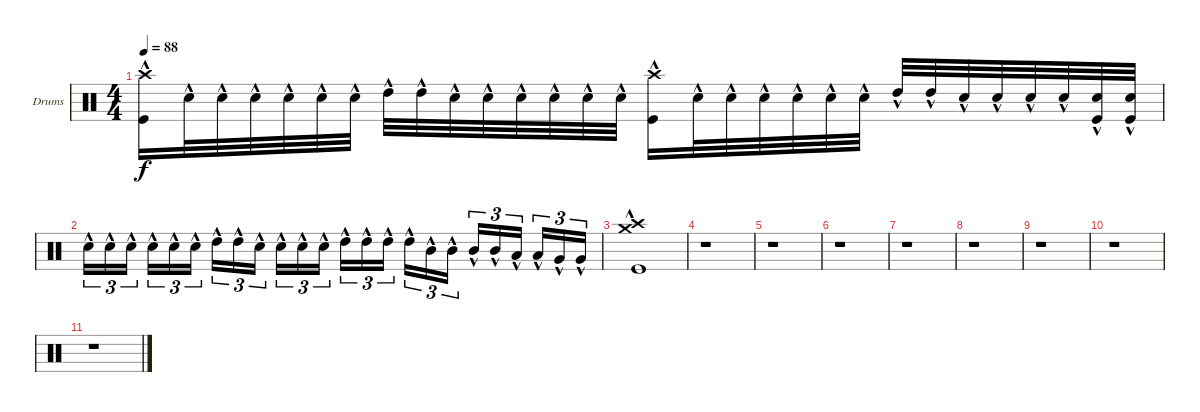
\bracketExtendMode groupsimilarinstruments
\firstSystemTrackNameOrientation horizontal
\otherSystemsTrackNameOrientation horizontal
\track ("Drumkit" "Drums") {instrument percussion}
\staff {score}
\articulation defaults
\ts (4 4)
\tempo 88
\clef neutral
\ks c
("Kick (hit)"{hac} "Crash high (hit)"{hac}).16{dy f} "Snare (hit) 2"{hac}.32 "Snare (hit) 2"{hac}.32 "Snare (hit) 2"{hac}.32 "Snare (hit) 2"{hac}.32 "Snare (hit) 2"{hac}.32 "Snare (hit) 2"{hac}.32 "High Tom (hit)"{hac}.32 "High Tom (hit)"{hac}.32 "Snare (hit) 2"{hac}.32 "Snare (hit) 2"{hac}.32 "Snare (hit) 2"{hac}.32 "Snare (hit) 2"{hac}.32 "Snare (hit) 2"{hac}.32 "Snare (hit) 2"{hac}.32 ("Kick (hit)"{hac} "Crash high (hit)"{hac}).16 "Snare (hit) 2"{hac}.32 "Snare (hit) 2"{hac}.32 "Snare (hit) 2"{hac}.32 "Snare (hit) 2"{hac}.32 "Snare (hit) 2"{hac}.32 "Snare (hit) 2"{hac}.32 "High Tom (hit)"{hac}.32 "High Tom (hit)"{hac}.32 "Snare (hit) 2"{hac}.32 "Snare (hit) 2"{hac}.32 "Snare (hit) 2"{hac}.32 "Snare (hit) 2"{hac}.32 ("Kick (hit)"{hac} "Snare (hit) 2"{hac}).32 ("Kick (hit)"{hac} "Snare (hit) 2"{hac}).32 |
"Snare (hit) 2"{hac}.16{tu (3 2)} "Snare (hit) 2"{hac}.16{tu (3 2)} "Snare (hit) 2"{hac}.16{tu (3 2)} "Snare (hit) 2"{hac}.16{tu (3 2)} "Snare (hit) 2"{hac}.16{tu (3 2)} "Snare (hit) 2"{hac}.16{tu (3 2)} "High Tom (hit)"{hac}.16{tu (3 2)} "High Tom (hit)"{hac}.16{tu (3 2)} "Snare (hit) 2"{hac}.16{tu (3 2)} "Snare (hit) 2"{hac}.16{tu (3 2)} "Snare (hit) 2"{hac}.16{tu (3 2)} "Snare (hit) 2"{hac}.16{tu (3 2)} "High Tom (hit)"{hac}.16{tu (3 2)} "High Tom (hit)"{hac}.16{tu (3 2)} "High Tom (hit)"{hac}.16{tu (3 2)} "High Tom (hit)"{hac}.16{tu (3 2)} "Mid Tom (hit)"{hac}.16{tu (3 2)} "Mid Tom (hit)"{hac}.16{tu (3 2)} "Mid Tom (hit)"{hac}.16{tu (3 2)} "Mid Tom (hit)"{hac}.16{tu (3 2)} "Low Tom (hit)"{hac}.16{tu (3 2)} "Low Tom (hit)"{hac}.16{tu (3 2)} "Very Low Tom (hit)"{hac}.16{tu (3 2)} "Very Low Tom (hit)"{hac}.16{tu (3 2)} |
("Kick (hit)"{hac} "Crash high (hit)" "Crash medium (hit)").1 |
r.1 |
r.1 |
r.1 |
r.1 |
r.1 |
r.1 |
r.1 |
r.1
